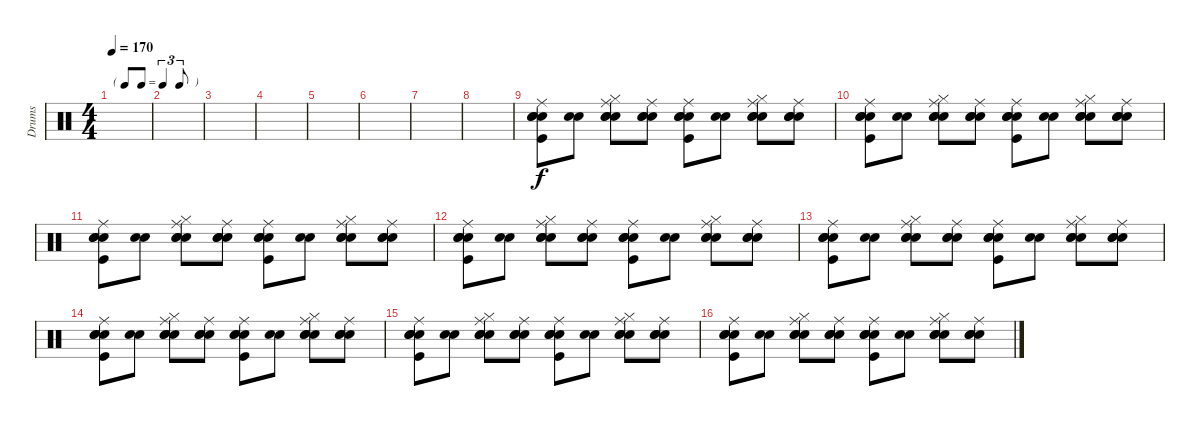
\track ("Drums" "Drums") {instrument percussion}
\staff {score}
\articulation defaults
\ts (4 4)
\tf triplet8th
\tempo 170
\clef neutral
\ks c
|
|
|
|
|
|
|
|
("Snare (hit)" "Kick (hit)" "Snare (hit) 2" "Electric Snare (hit)" "Ride (middle)").8 ("Snare (hit)" "Electric Snare (hit)").8 ("Snare (hit)" "Snare (hit) 2" "Hi-Hat (closed)" "Electric Snare (hit)" "Ride (middle)").8 ("Snare (hit)" "Snare (hit) 2" "Electric Snare (hit)" "Ride (middle)").8 ("Snare (hit)" "Kick (hit)" "Snare (hit) 2" "Electric Snare (hit)" "Ride (middle)").8 ("Snare (hit)" "Electric Snare (hit)").8 ("Snare (hit)" "Snare (hit) 2" "Hi-Hat (closed)" "Electric Snare (hit)" "Ride (middle)").8 ("Snare (hit)" "Snare (hit) 2" "Electric Snare (hit)" "Ride (middle)").8 |
("Snare (hit)" "Kick (hit)" "Snare (hit) 2" "Electric Snare (hit)" "Ride (middle)").8 ("Snare (hit)" "Electric Snare (hit)").8 ("Snare (hit)" "Snare (hit) 2" "Hi-Hat (closed)" "Electric Snare (hit)" "Ride (middle)").8 ("Snare (hit)" "Snare (hit) 2" "Electric Snare (hit)" "Ride (middle)").8 ("Snare (hit)" "Kick (hit)" "Snare (hit) 2" "Electric Snare (hit)" "Ride (middle)").8 ("Snare (hit)" "Electric Snare (hit)").8 ("Snare (hit)" "Snare (hit) 2" "Hi-Hat (closed)" "Electric Snare (hit)" "Ride (middle)").8 ("Snare (hit)" "Snare (hit) 2" "Electric Snare (hit)" "Ride (middle)").8 |
("Snare (hit)" "Kick (hit)" "Snare (hit) 2" "Electric Snare (hit)" "Ride (middle)").8 ("Snare (hit)" "Electric Snare (hit)").8 ("Snare (hit)" "Snare (hit) 2" "Hi-Hat (closed)" "Electric Snare (hit)" "Ride (middle)").8 ("Snare (hit)" "Snare (hit) 2" "Electric Snare (hit)" "Ride (middle)").8 ("Snare (hit)" "Kick (hit)" "Snare (hit) 2" "Electric Snare (hit)" "Ride (middle)").8 ("Snare (hit)" "Electric Snare (hit)").8 ("Snare (hit)" "Snare (hit) 2" "Hi-Hat (closed)" "Electric Snare (hit)" "Ride (middle)").8 ("Snare (hit)" "Snare (hit) 2" "Electric Snare (hit)" "Ride (middle)").8 |
("Snare (hit)" "Kick (hit)" "Snare (hit) 2" "Electric Snare (hit)" "Ride (middle)").8 ("Snare (hit)" "Electric Snare (hit)").8 ("Snare (hit)" "Snare (hit) 2" "Hi-Hat (closed)" "Electric Snare (hit)" "Ride (middle)").8 ("Snare (hit)" "Snare (hit) 2" "Electric Snare (hit)" "Ride (middle)").8 ("Snare (hit)" "Kick (hit)" "Snare (hit) 2" "Electric Snare (hit)" "Ride (middle)").8 ("Snare (hit)" "Electric Snare (hit)").8 ("Snare (hit)" "Snare (hit) 2" "Hi-Hat (closed)" "Electric Snare (hit)" "Ride (middle)").8 ("Snare (hit)" "Snare (hit) 2" "Electric Snare (hit)" "Ride (middle)").8 |
("Snare (hit)" "Kick (hit)" "Snare (hit) 2" "Electric Snare (hit)" "Ride (middle)").8 ("Snare (hit)" "Electric Snare (hit)").8 ("Snare (hit)" "Snare (hit) 2" "Hi-Hat (closed)" "Electric Snare (hit)" "Ride (middle)").8 ("Snare (hit)" "Snare (hit) 2" "Electric Snare (hit)" "Ride (middle)").8 ("Snare (hit)" "Kick (hit)" "Snare (hit) 2" "Electric Snare (hit)" "Ride (middle)").8 ("Snare (hit)" "Electric Snare (hit)").8 ("Snare (hit)" "Snare (hit) 2" "Hi-Hat (closed)" "Electric Snare (hit)" "Ride (middle)").8 ("Snare (hit)" "Snare (hit) 2" "Electric Snare (hit)" "Ride (middle)").8 |
("Snare (hit)" "Kick (hit)" "Snare (hit) 2" "Electric Snare (hit)" "Ride (middle)").8 ("Snare (hit)" "Electric Snare (hit)").8 ("Snare (hit)" "Snare (hit) 2" "Hi-Hat (closed)" "Electric Snare (hit)" "Ride (middle)").8 ("Snare (hit)" "Snare (hit) 2" "Electric Snare (hit)" "Ride (middle)").8 ("Snare (hit)" "Kick (hit)" "Snare (hit) 2" "Electric Snare (hit)" "Ride (middle)").8 ("Snare (hit)" "Electric Snare (hit)").8 ("Snare (hit)" "Snare (hit) 2" "Hi-Hat (closed)" "Electric Snare (hit)" "Ride (middle)").8 ("Snare (hit)" "Snare (hit) 2" "Electric Snare (hit)" "Ride (middle)").8 |
("Snare (hit)" "Kick (hit)" "Snare (hit) 2" "Electric Snare (hit)" "Ride (middle)").8 ("Snare (hit)" "Electric Snare (hit)").8 ("Snare (hit)" "Snare (hit) 2" "Hi-Hat (closed)" "Electric Snare (hit)" "Ride (middle)").8 ("Snare (hit)" "Snare (hit) 2" "Electric Snare (hit)" "Ride (middle)").8 ("Snare (hit)" "Kick (hit)" "Snare (hit) 2" "Electric Snare (hit)" "Ride (middle)").8 ("Snare (hit)" "Electric Snare (hit)").8 ("Snare (hit)" "Snare (hit) 2" "Hi-Hat (closed)" "Electric Snare (hit)" "Ride (middle)").8 ("Snare (hit)" "Snare (hit) 2" "Electric Snare (hit)" "Ride (middle)").8 |
("Snare (hit)" "Kick (hit)" "Snare (hit) 2" "Electric Snare (hit)" "Ride (middle)").8 ("Snare (hit)" "Electric Snare (hit)").8 ("Snare (hit)" "Snare (hit) 2" "Hi-Hat (closed)" "Electric Snare (hit)" "Ride (middle)").8 ("Snare (hit)" "Snare (hit) 2" "Electric Snare (hit)" "Ride (middle)").8 ("Snare (hit)" "Kick (hit)" "Snare (hit) 2" "Electric Snare (hit)" "Ride (middle)").8 ("Snare (hit)" "Electric Snare (hit)").8 ("Snare (hit)" "Snare (hit) 2" "Hi-Hat (closed)" "Electric Snare (hit)" "Ride (middle)").8 ("Snare (hit)" "Snare (hit) 2" "Electric Snare (hit)" "Ride (middle)").8
